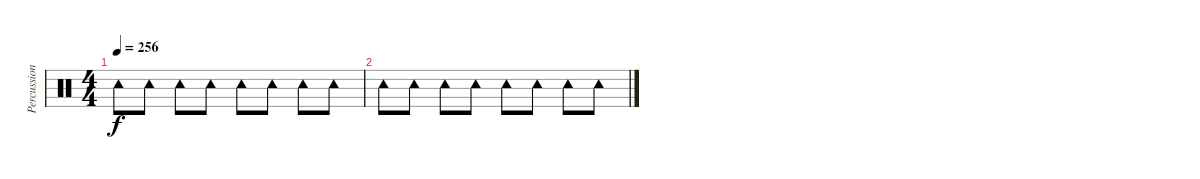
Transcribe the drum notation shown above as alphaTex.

\track ("Percussions" "Percussion") {instrument percussion}
\staff {score}
\articulation defaults
\ts (4 4)
\tempo 256
\clef neutral
\ks c "Tambourine (hit)".8{dy f} "Tambourine (hit)".8 "Tambourine (hit)".8 "Tambourine (hit)".8 "Tambourine (hit)".8 "Tambourine (hit)".8 "Tambourine (hit)".8 "Tambourine (hit)".8
|
"Tambourine (hit)".8 "Tambourine (hit)".8 "Tambourine (hit)".8 "Tambourine (hit)".8 "Tambourine (hit)".8 "Tambourine (hit)".8 "Tambourine (hit)".8 "Tambourine (hit)".8
